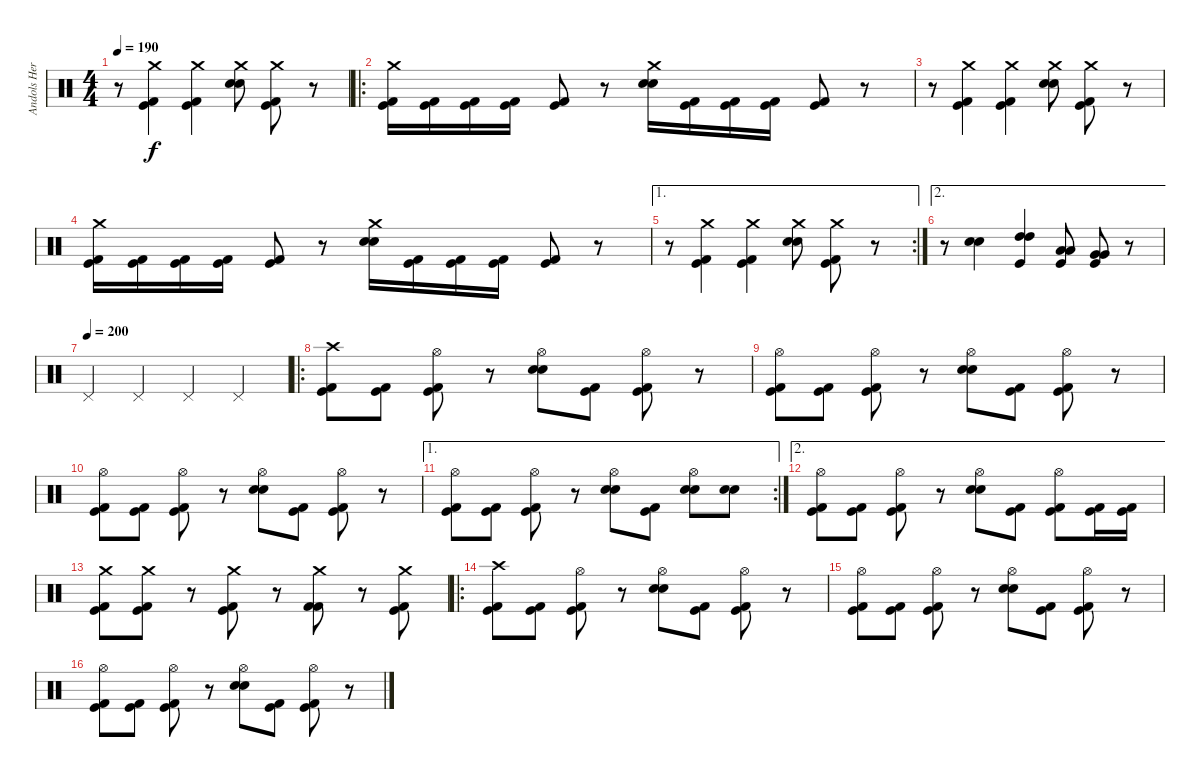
\track ("Andols Herrick" "Andols Her") {instrument percussion}
\staff {score}
\articulation defaults
\ts (4 4)
\tempo 190
\clef neutral
\ks c
r.8{dy f} ("Crash medium (hit)" "Kick (hit) 2" "Kick (hit)").4 ("Crash medium (hit)" "Kick (hit) 2" "Kick (hit)").4 ("Crash medium (hit)" "Electric Snare (hit)" "Snare (hit) 2").8 ("Crash medium (hit)" "Kick (hit) 2" "Kick (hit)").8 r.8 |
\ro
("Crash medium (hit)" "Kick (hit) 2" "Kick (hit)").16 ("Kick (hit) 2" "Kick (hit)").16 ("Kick (hit) 2" "Kick (hit)").16 ("Kick (hit) 2" "Kick (hit)").16 ("Kick (hit) 2" "Kick (hit)").8 r.8 ("Crash medium (hit)" "Snare (hit) 2" "Snare (hit) 2").16 ("Kick (hit) 2" "Kick (hit)").16 ("Kick (hit) 2" "Kick (hit)").16 ("Kick (hit) 2" "Kick (hit)").16 ("Kick (hit) 2" "Kick (hit)").8 r.8 |
r.8 ("Crash medium (hit)" "Kick (hit) 2" "Kick (hit)").4 ("Crash medium (hit)" "Kick (hit) 2" "Kick (hit)").4 ("Crash medium (hit)" "Electric Snare (hit)" "Snare (hit) 2").8 ("Crash medium (hit)" "Kick (hit) 2" "Kick (hit)").8 r.8 |
("Crash medium (hit)" "Kick (hit) 2" "Kick (hit)").16 ("Kick (hit) 2" "Kick (hit)").16 ("Kick (hit) 2" "Kick (hit)").16 ("Kick (hit) 2" "Kick (hit)").16 ("Kick (hit) 2" "Kick (hit)").8 r.8 ("Crash medium (hit)" "Snare (hit) 2" "Snare (hit) 2").16 ("Kick (hit) 2" "Kick (hit)").16 ("Kick (hit) 2" "Kick (hit)").16 ("Kick (hit) 2" "Kick (hit)").16 ("Kick (hit) 2" "Kick (hit)").8 r.8 |
\ae 1
\rc 2
r.8 ("Crash medium (hit)" "Kick (hit) 2" "Kick (hit)").4 ("Crash medium (hit)" "Kick (hit) 2" "Kick (hit)").4 ("Crash medium (hit)" "Electric Snare (hit)" "Snare (hit) 2").8 ("Crash medium (hit)" "Kick (hit) 2" "Kick (hit)").8 r.8 |
\ae 2
r.8 ("Electric Snare (hit)" "Snare (hit) 2").4 ("High Tom (hit)" "High Tom (hit)" "Kick (hit)").4 ("Low Tom (hit)" "Low Tom (hit)" "Kick (hit)").8 ("Very Low Tom (hit)" "Very Low Tom (hit)" "Kick (hit)").8 r.8 |
\tempo (200)
"Pedal Hi-Hat (hit)".4 "Pedal Hi-Hat (hit)".4 "Pedal Hi-Hat (hit)".4 "Pedal Hi-Hat (hit)".4 |
\ro
("Crash high (hit)" "Kick (hit) 2" "Kick (hit)").8 ("Kick (hit) 2" "Kick (hit)").8 ("Hi-Hat (open)" "Kick (hit) 2" "Kick (hit)").8 r.8 ("Hi-Hat (open)" "Electric Snare (hit)" "Snare (hit) 2").8 ("Kick (hit) 2" "Kick (hit)").8 ("Hi-Hat (open)" "Kick (hit) 2" "Kick (hit)").8 r.8 |
("Hi-Hat (open)" "Kick (hit) 2" "Kick (hit)").8 ("Kick (hit) 2" "Kick (hit)").8 ("Hi-Hat (open)" "Kick (hit) 2" "Kick (hit)").8 r.8 ("Hi-Hat (open)" "Electric Snare (hit)" "Snare (hit) 2").8 ("Kick (hit) 2" "Kick (hit)").8 ("Hi-Hat (open)" "Kick (hit) 2" "Kick (hit)").8 r.8 |
("Hi-Hat (open)" "Kick (hit) 2" "Kick (hit)").8 ("Kick (hit) 2" "Kick (hit)").8 ("Hi-Hat (open)" "Kick (hit) 2" "Kick (hit)").8 r.8 ("Hi-Hat (open)" "Electric Snare (hit)" "Snare (hit) 2").8 ("Kick (hit) 2" "Kick (hit)").8 ("Hi-Hat (open)" "Kick (hit) 2" "Kick (hit)").8 r.8 |
\ae 1
\rc 2
("Hi-Hat (open)" "Kick (hit) 2" "Kick (hit)").8 ("Kick (hit) 2" "Kick (hit)").8 ("Hi-Hat (open)" "Kick (hit) 2" "Kick (hit)").8 r.8 ("Hi-Hat (open)" "Electric Snare (hit)" "Snare (hit) 2").8 ("Kick (hit) 2" "Kick (hit)").8 ("Hi-Hat (open)" "Electric Snare (hit)" "Snare (hit) 2").8 ("Electric Snare (hit)" "Snare (hit) 2").8 |
\ae 2
("Hi-Hat (open)" "Kick (hit) 2" "Kick (hit)").8 ("Kick (hit) 2" "Kick (hit)").8 ("Hi-Hat (open)" "Kick (hit) 2" "Kick (hit)").8 r.8 ("Hi-Hat (open)" "Electric Snare (hit)" "Snare (hit) 2").8 ("Kick (hit) 2" "Kick (hit)").8 ("Hi-Hat (open)" "Kick (hit) 2" "Kick (hit)").8 ("Kick (hit) 2" "Kick (hit)").16 ("Kick (hit) 2" "Kick (hit)").16 |
("Crash medium (hit)" "Kick (hit) 2" "Kick (hit)").8 ("Crash medium (hit)" "Kick (hit) 2" "Kick (hit)").8 r.8 ("Crash medium (hit)" "Kick (hit) 2" "Kick (hit)").8 r.8 ("Crash medium (hit)" "Kick (hit) 2" "Kick (hit) 2").8 r.8 ("Crash medium (hit)" "Kick (hit) 2" "Kick (hit)").8 |
\ro
("Crash high (hit)" "Kick (hit) 2" "Kick (hit)").8 ("Kick (hit) 2" "Kick (hit)").8 ("Hi-Hat (open)" "Kick (hit) 2" "Kick (hit)").8 r.8 ("Hi-Hat (open)" "Electric Snare (hit)" "Snare (hit) 2").8 ("Kick (hit) 2" "Kick (hit)").8 ("Hi-Hat (open)" "Kick (hit) 2" "Kick (hit)").8 r.8 |
("Hi-Hat (open)" "Kick (hit) 2" "Kick (hit)").8 ("Kick (hit) 2" "Kick (hit)").8 ("Hi-Hat (open)" "Kick (hit) 2" "Kick (hit)").8 r.8 ("Hi-Hat (open)" "Electric Snare (hit)" "Snare (hit) 2").8 ("Kick (hit) 2" "Kick (hit)").8 ("Hi-Hat (open)" "Kick (hit) 2" "Kick (hit)").8 r.8 |
("Hi-Hat (open)" "Kick (hit) 2" "Kick (hit)").8 ("Kick (hit) 2" "Kick (hit)").8 ("Hi-Hat (open)" "Kick (hit) 2" "Kick (hit)").8 r.8 ("Hi-Hat (open)" "Electric Snare (hit)" "Snare (hit) 2").8 ("Kick (hit) 2" "Kick (hit)").8 ("Hi-Hat (open)" "Kick (hit) 2" "Kick (hit)").8 r.8
